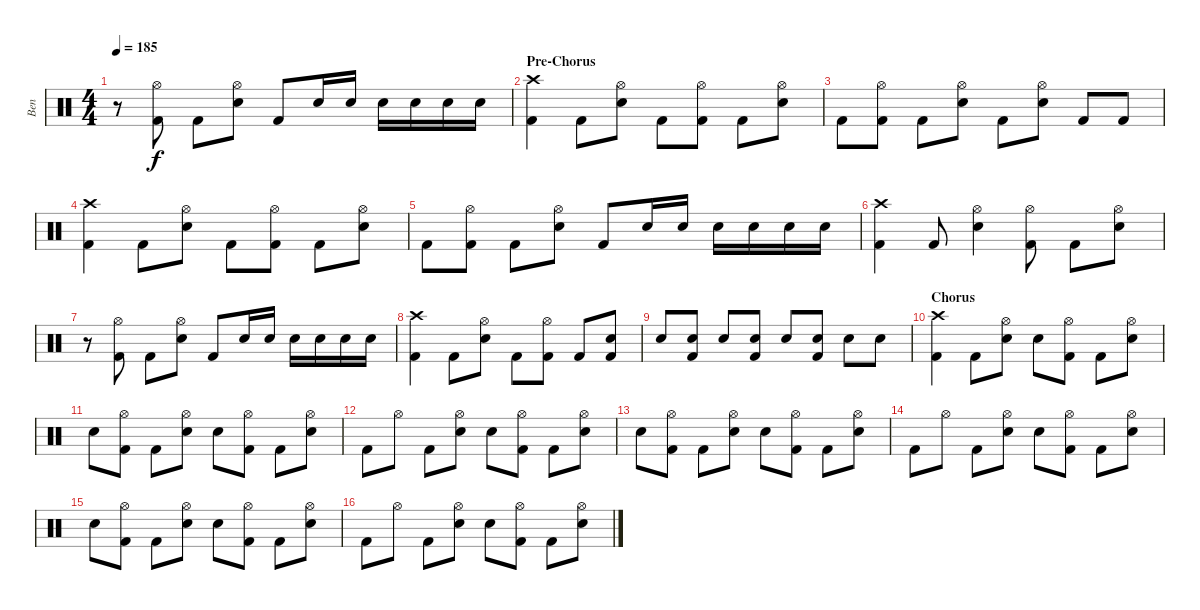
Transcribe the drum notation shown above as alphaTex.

\track ("Ben" "Ben") {instrument percussion}
\staff {score}
\articulation defaults
\ts (4 4)
\tempo 185
\clef neutral
\ks c
r.8{dy f} ("Hi-Hat (open)" "Kick (hit) 2").8 "Kick (hit) 2".8 ("Hi-Hat (open)" "Electric Snare (hit)").8 "Kick (hit) 2".8 "Electric Snare (hit)".16 "Electric Snare (hit)".16 "Electric Snare (hit)".16 "Electric Snare (hit)".16 "Electric Snare (hit)".16 "Electric Snare (hit)".16 |
\section ("" "Pre-Chorus")
("Crash high (hit)" "Kick (hit) 2").4 "Kick (hit) 2".8 ("Hi-Hat (open)" "Electric Snare (hit)").8 "Kick (hit) 2".8 ("Hi-Hat (open)" "Kick (hit) 2").8 "Kick (hit) 2".8 ("Hi-Hat (open)" "Electric Snare (hit)").8 |
"Kick (hit) 2".8 ("Hi-Hat (open)" "Kick (hit) 2").8 "Kick (hit) 2".8 ("Hi-Hat (open)" "Electric Snare (hit)").8 "Kick (hit) 2".8 ("Hi-Hat (open)" "Electric Snare (hit)").8 "Kick (hit) 2".8 "Kick (hit) 2".8 |
("Crash high (hit)" "Kick (hit) 2").4 "Kick (hit) 2".8 ("Hi-Hat (open)" "Electric Snare (hit)").8 "Kick (hit) 2".8 ("Hi-Hat (open)" "Kick (hit) 2").8 "Kick (hit) 2".8 ("Hi-Hat (open)" "Electric Snare (hit)").8 |
"Kick (hit) 2".8 ("Hi-Hat (open)" "Kick (hit) 2").8 "Kick (hit) 2".8 ("Hi-Hat (open)" "Electric Snare (hit)").8 "Kick (hit) 2".8 "Electric Snare (hit)".16 "Electric Snare (hit)".16 "Electric Snare (hit)".16 "Electric Snare (hit)".16 "Electric Snare (hit)".16 "Electric Snare (hit)".16 |
("Crash high (hit)" "Kick (hit) 2").4 "Kick (hit) 2".8 ("Hi-Hat (open)" "Electric Snare (hit)").4 ("Hi-Hat (open)" "Kick (hit) 2").8 "Kick (hit) 2".8 ("Hi-Hat (open)" "Electric Snare (hit)").8 |
r.8 ("Hi-Hat (open)" "Kick (hit) 2").8 "Kick (hit) 2".8 ("Hi-Hat (open)" "Electric Snare (hit)").8 "Kick (hit) 2".8 "Electric Snare (hit)".16 "Electric Snare (hit)".16 "Electric Snare (hit)".16 "Electric Snare (hit)".16 "Electric Snare (hit)".16 "Electric Snare (hit)".16 |
("Crash high (hit)" "Kick (hit) 2").4 "Kick (hit) 2".8 ("Hi-Hat (open)" "Electric Snare (hit)").8 "Kick (hit) 2".8 ("Hi-Hat (open)" "Kick (hit) 2").8 "Kick (hit) 2".8 ("Electric Snare (hit)" "Kick (hit) 2").8 |
"Electric Snare (hit)".8 ("Electric Snare (hit)" "Kick (hit) 2").8 "Electric Snare (hit)".8 ("Electric Snare (hit)" "Kick (hit) 2").8 "Electric Snare (hit)".8 ("Electric Snare (hit)" "Kick (hit) 2").8 "Electric Snare (hit)".8 "Electric Snare (hit)".8 |
\section ("" "Chorus")
("Crash high (hit)" "Kick (hit) 2").4 "Kick (hit) 2".8 ("Hi-Hat (open)" "Electric Snare (hit)").8 "Electric Snare (hit)".8 ("Hi-Hat (open)" "Kick (hit) 2").8 "Kick (hit) 2".8 ("Hi-Hat (open)" "Electric Snare (hit)").8 |
"Electric Snare (hit)".8 ("Hi-Hat (open)" "Kick (hit) 2").8 "Kick (hit) 2".8 ("Hi-Hat (open)" "Electric Snare (hit)").8 "Electric Snare (hit)".8 ("Hi-Hat (open)" "Kick (hit) 2").8 "Kick (hit) 2".8 ("Hi-Hat (open)" "Electric Snare (hit)").8 |
"Kick (hit) 2".8 "Hi-Hat (open)".8 "Kick (hit) 2".8 ("Hi-Hat (open)" "Electric Snare (hit)").8 "Electric Snare (hit)".8 ("Hi-Hat (open)" "Kick (hit) 2").8 "Kick (hit) 2".8 ("Hi-Hat (open)" "Electric Snare (hit)").8 |
"Electric Snare (hit)".8 ("Hi-Hat (open)" "Kick (hit) 2").8 "Kick (hit) 2".8 ("Hi-Hat (open)" "Electric Snare (hit)").8 "Electric Snare (hit)".8 ("Hi-Hat (open)" "Kick (hit) 2").8 "Kick (hit) 2".8 ("Hi-Hat (open)" "Electric Snare (hit)").8 |
"Kick (hit) 2".8 "Hi-Hat (open)".8 "Kick (hit) 2".8 ("Hi-Hat (open)" "Electric Snare (hit)").8 "Electric Snare (hit)".8 ("Hi-Hat (open)" "Kick (hit) 2").8 "Kick (hit) 2".8 ("Hi-Hat (open)" "Electric Snare (hit)").8 |
"Electric Snare (hit)".8 ("Hi-Hat (open)" "Kick (hit) 2").8 "Kick (hit) 2".8 ("Hi-Hat (open)" "Electric Snare (hit)").8 "Electric Snare (hit)".8 ("Hi-Hat (open)" "Kick (hit) 2").8 "Kick (hit) 2".8 ("Hi-Hat (open)" "Electric Snare (hit)").8 |
"Kick (hit) 2".8 "Hi-Hat (open)".8 "Kick (hit) 2".8 ("Hi-Hat (open)" "Electric Snare (hit)").8 "Electric Snare (hit)".8 ("Hi-Hat (open)" "Kick (hit) 2").8 "Kick (hit) 2".8 ("Hi-Hat (open)" "Electric Snare (hit)").8
